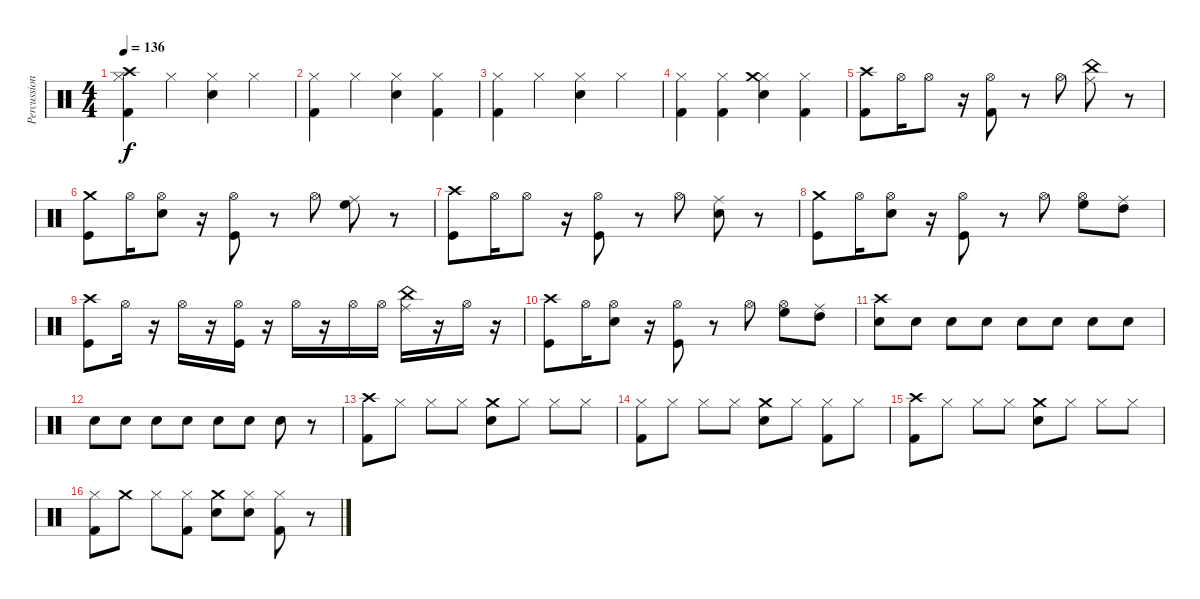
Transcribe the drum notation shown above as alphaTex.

\track ("Percussion" "Percussion") {instrument percussion}
\staff {score}
\articulation defaults
\ts (4 4)
\tempo 136
\clef neutral
\ks c
("Hi-Hat (closed)" "Crash high (hit)" "Kick (hit) 2").4{dy f} "Hi-Hat (closed)".4 ("Hi-Hat (closed)" "Electric Snare (hit)").4 "Hi-Hat (closed)".4 |
("Hi-Hat (closed)" "Kick (hit) 2").4 "Hi-Hat (closed)".4 ("Hi-Hat (closed)" "Electric Snare (hit)").4 ("Hi-Hat (closed)" "Kick (hit) 2").4 |
("Hi-Hat (closed)" "Kick (hit) 2").4 "Hi-Hat (closed)".4 ("Hi-Hat (closed)" "Electric Snare (hit)").4 "Hi-Hat (closed)".4 |
("Hi-Hat (closed)" "Kick (hit) 2").4 ("Hi-Hat (closed)" "Kick (hit) 2").4 ("Hi-Hat (closed)" "Crash medium (hit)" "Electric Snare (hit)").4 ("Hi-Hat (closed)" "Kick (hit) 2").4 |
("Crash high (hit)" "Kick (hit) 2").8 "Hi-Hat (open)".16 "Hi-Hat (open)".8 r.16 ("Hi-Hat (open)" "Kick (hit) 2").8 r.8 "Hi-Hat (open)".8 ("Ride (middle)" "China (hit)").8 r.8 |
("Crash medium (hit)" "Kick (hit)").8 "Hi-Hat (open)".16 ("Hi-Hat (open)" "Electric Snare (hit)").8 r.16 ("Hi-Hat (open)" "Kick (hit)").8 r.8 "Hi-Hat (open)".8 ("Ride (middle)" "High Floor Tom (hit)").8 r.8 |
("Crash high (hit)" "Kick (hit)").8 "Hi-Hat (open)".16 "Hi-Hat (open)".8 r.16 ("Hi-Hat (open)" "Kick (hit)").8 r.8 "Hi-Hat (open)".8 ("Ride (middle)" "Snare (hit) 2").8 r.8 |
("Crash medium (hit)" "Kick (hit)").8 "Hi-Hat (open)".16 ("Hi-Hat (open)" "Snare (hit) 2").8 r.16 ("Hi-Hat (open)" "Kick (hit)").8 r.8 "Hi-Hat (open)".8 ("Hi-Hat (open)" "High Floor Tom (hit)").8 ("Ride (middle)" "High Tom (hit)").8 |
("Crash high (hit)" "Kick (hit)").8 "Hi-Hat (open)".16 r.16 "Hi-Hat (open)".16 r.16 ("Hi-Hat (open)" "Kick (hit)").16 r.16 "Hi-Hat (open)".16 r.16 "Hi-Hat (open)".16 "Hi-Hat (open)".16 ("Ride (middle)" "China (hit)").16 r.16 "Hi-Hat (open)".16 r.16 |
("Crash high (hit)" "Kick (hit)").8 "Hi-Hat (open)".16 ("Hi-Hat (open)" "Snare (hit) 2").8 r.16 ("Hi-Hat (open)" "Kick (hit)").8 r.8 "Hi-Hat (open)".8 ("Hi-Hat (open)" "High Floor Tom (hit)").8 ("Ride (middle)" "High Tom (hit)").8 |
("Crash high (hit)" "Snare (hit) 2").8 "Snare (hit) 2".8 "Snare (hit) 2".8 "Snare (hit) 2".8 "Snare (hit) 2".8 "Snare (hit) 2".8 "Snare (hit) 2".8 "Snare (hit) 2".8 |
"Snare (hit) 2".8 "Snare (hit) 2".8 "Snare (hit) 2".8 "Snare (hit) 2".8 "Snare (hit) 2".8 "Electric Snare (hit)".8 "Electric Snare (hit)".8 r.8 |
("Crash high (hit)" "Kick (hit) 2").8 "Hi-Hat (closed)".8 "Hi-Hat (closed)".8 "Hi-Hat (closed)".8 ("Crash medium (hit)" "Electric Snare (hit)").8 "Hi-Hat (closed)".8 "Hi-Hat (closed)".8 "Hi-Hat (closed)".8 |
("Hi-Hat (closed)" "Kick (hit) 2").8 "Hi-Hat (closed)".8 "Hi-Hat (closed)".8 "Hi-Hat (closed)".8 ("Crash medium (hit)" "Electric Snare (hit)").8 "Hi-Hat (closed)".8 ("Hi-Hat (closed)" "Kick (hit) 2").8 "Hi-Hat (closed)".8 |
("Crash high (hit)" "Kick (hit) 2").8 "Hi-Hat (closed)".8 "Hi-Hat (closed)".8 "Hi-Hat (closed)".8 ("Crash medium (hit)" "Electric Snare (hit)").8 "Hi-Hat (closed)".8 "Hi-Hat (closed)".8 "Hi-Hat (closed)".8 |
("Hi-Hat (closed)" "Kick (hit) 2").8 "Crash medium (hit)".8 "Hi-Hat (closed)".8 ("Hi-Hat (closed)" "Kick (hit) 2").8 ("Crash medium (hit)" "Electric Snare (hit)").8 ("Hi-Hat (closed)" "Electric Snare (hit)").8 ("Hi-Hat (closed)" "Kick (hit) 2").8 r.8
